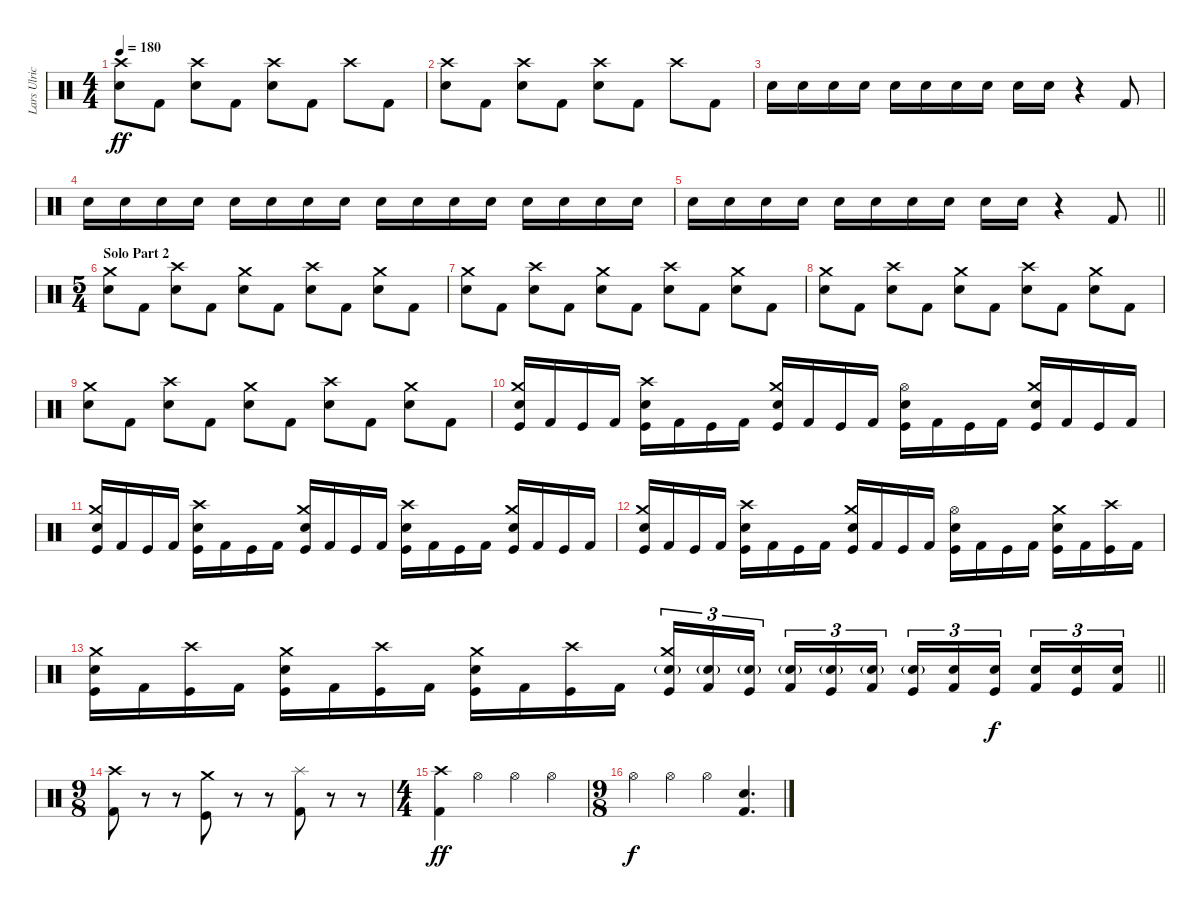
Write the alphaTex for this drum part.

\track ("Lars Ulrich" "Lars Ulric") {instrument percussion}
\staff {score}
\articulation defaults
\ts (4 4)
\tempo 180
\clef neutral
\ks c
("Crash high (hit)" "Electric Snare (hit)").8{dy ff} "Kick (hit) 2".8 ("Crash high (hit)" "Electric Snare (hit)").8 "Kick (hit) 2".8 ("Crash high (hit)" "Electric Snare (hit)").8 "Kick (hit) 2".8 "Crash high (hit)".8 "Kick (hit) 2".8 |
("Crash high (hit)" "Electric Snare (hit)").8 "Kick (hit) 2".8 ("Crash high (hit)" "Electric Snare (hit)").8 "Kick (hit) 2".8 ("Crash high (hit)" "Electric Snare (hit)").8 "Kick (hit) 2".8 "Crash high (hit)".8 "Kick (hit) 2".8 |
"Electric Snare (hit)".16 "Electric Snare (hit)".16 "Electric Snare (hit)".16 "Electric Snare (hit)".16 "Electric Snare (hit)".16 "Electric Snare (hit)".16 "Electric Snare (hit)".16 "Electric Snare (hit)".16 "Electric Snare (hit)".16 "Electric Snare (hit)".16 r.4 "Kick (hit) 2".8 |
"Electric Snare (hit)".16 "Electric Snare (hit)".16 "Electric Snare (hit)".16 "Electric Snare (hit)".16 "Electric Snare (hit)".16 "Electric Snare (hit)".16 "Electric Snare (hit)".16 "Electric Snare (hit)".16 "Electric Snare (hit)".16 "Electric Snare (hit)".16 "Electric Snare (hit)".16 "Electric Snare (hit)".16 "Electric Snare (hit)".16 "Electric Snare (hit)".16 "Electric Snare (hit)".16 "Electric Snare (hit)".16 |
\barLineRight lightlight "Electric Snare (hit)".16 "Electric Snare (hit)".16 "Electric Snare (hit)".16 "Electric Snare (hit)".16 "Electric Snare (hit)".16 "Electric Snare (hit)".16 "Electric Snare (hit)".16 "Electric Snare (hit)".16 "Electric Snare (hit)".16 "Electric Snare (hit)".16
r.4 "Kick (hit) 2".8 |
\ts (5 4)
\section ("" "Solo Part 2")
("Crash medium (hit)" "Electric Snare (hit)").8 "Kick (hit) 2".8 ("Crash high (hit)" "Electric Snare (hit)").8 "Kick (hit) 2".8 ("Crash medium (hit)" "Electric Snare (hit)").8 "Kick (hit) 2".8 ("Crash high (hit)" "Electric Snare (hit)").8 "Kick (hit) 2".8 ("Crash medium (hit)" "Electric Snare (hit)").8 "Kick (hit) 2".8 |
("Crash medium (hit)" "Electric Snare (hit)").8 "Kick (hit) 2".8 ("Crash high (hit)" "Electric Snare (hit)").8 "Kick (hit) 2".8 ("Crash medium (hit)" "Electric Snare (hit)").8 "Kick (hit) 2".8 ("Crash high (hit)" "Electric Snare (hit)").8 "Kick (hit) 2".8 ("Crash medium (hit)" "Electric Snare (hit)").8 "Kick (hit) 2".8 |
("Crash medium (hit)" "Electric Snare (hit)").8 "Kick (hit) 2".8 ("Crash high (hit)" "Electric Snare (hit)").8 "Kick (hit) 2".8 ("Crash medium (hit)" "Electric Snare (hit)").8 "Kick (hit) 2".8 ("Crash high (hit)" "Electric Snare (hit)").8 "Kick (hit) 2".8 ("Crash medium (hit)" "Electric Snare (hit)").8 "Kick (hit) 2".8 |
("Crash medium (hit)" "Electric Snare (hit)").8 "Kick (hit) 2".8 ("Crash high (hit)" "Electric Snare (hit)").8 "Kick (hit) 2".8 ("Crash medium (hit)" "Electric Snare (hit)").8 "Kick (hit) 2".8 ("Crash high (hit)" "Electric Snare (hit)").8 "Kick (hit) 2".8 ("Crash medium (hit)" "Electric Snare (hit)").8 "Kick (hit) 2".8 |
("Crash medium (hit)" "Electric Snare (hit)" "Kick (hit)").16 "Kick (hit) 2".16 "Kick (hit)".16 "Kick (hit) 2".16 ("Crash high (hit)" "Electric Snare (hit)" "Kick (hit)").16 "Kick (hit) 2".16 "Kick (hit)".16 "Kick (hit) 2".16 ("Crash medium (hit)" "Electric Snare (hit)" "Kick (hit)").16 "Kick (hit) 2".16 "Kick (hit)".16 "Kick (hit) 2".16 ("Hi-Hat (open)" "Electric Snare (hit)" "Kick (hit)").16 "Kick (hit) 2".16 "Kick (hit)".16 "Kick (hit) 2".16 ("Crash medium (hit)" "Electric Snare (hit)" "Kick (hit)").16 "Kick (hit) 2".16 "Kick (hit)".16 "Kick (hit) 2".16 |
("Crash medium (hit)" "Electric Snare (hit)" "Kick (hit)").16 "Kick (hit) 2".16 "Kick (hit)".16 "Kick (hit) 2".16 ("Crash high (hit)" "Electric Snare (hit)" "Kick (hit)").16 "Kick (hit) 2".16 "Kick (hit)".16 "Kick (hit) 2".16 ("Crash medium (hit)" "Electric Snare (hit)" "Kick (hit)").16 "Kick (hit) 2".16 "Kick (hit)".16 "Kick (hit) 2".16 ("Crash high (hit)" "Electric Snare (hit)" "Kick (hit)").16 "Kick (hit) 2".16 "Kick (hit)".16 "Kick (hit) 2".16 ("Crash medium (hit)" "Electric Snare (hit)" "Kick (hit)").16 "Kick (hit) 2".16 "Kick (hit)".16 "Kick (hit) 2".16 |
("Crash medium (hit)" "Electric Snare (hit)" "Kick (hit)").16 "Kick (hit) 2".16 "Kick (hit)".16 "Kick (hit) 2".16 ("Crash high (hit)" "Electric Snare (hit)" "Kick (hit)").16 "Kick (hit) 2".16 "Kick (hit)".16 "Kick (hit) 2".16 ("Crash medium (hit)" "Electric Snare (hit)" "Kick (hit)").16 "Kick (hit) 2".16 "Kick (hit)".16 "Kick (hit) 2".16 ("Hi-Hat (open)" "Electric Snare (hit)" "Kick (hit)").16 "Kick (hit) 2".16 "Kick (hit)".16 "Kick (hit) 2".16 ("Crash medium (hit)" "Electric Snare (hit)" "Kick (hit)").16 "Kick (hit) 2".16 ("Crash high (hit)" "Kick (hit)").16 "Kick (hit) 2".16 |
\barLineRight lightlight
("Crash medium (hit)" "Electric Snare (hit)" "Kick (hit)").16 "Kick (hit) 2".16 ("Crash high (hit)" "Kick (hit)").16 "Kick (hit) 2".16 ("Crash medium (hit)" "Electric Snare (hit)" "Kick (hit)").16 "Kick (hit) 2".16 ("Crash high (hit)" "Kick (hit)").16 "Kick (hit) 2".16 ("Crash medium (hit)" "Electric Snare (hit)" "Kick (hit)").16 "Kick (hit) 2".16 ("Crash high (hit)" "Kick (hit)").16 "Kick (hit) 2".16 ("Crash medium (hit)" "Electric Snare (hit)"{g} "Kick (hit)").16{tu (3 2)} ("Electric Snare (hit)"{g} "Kick (hit) 2").16{tu (3 2)} ("Electric Snare (hit)"{g} "Kick (hit)").16{tu (3 2)} ("Electric Snare (hit)"{g} "Kick (hit) 2").16{tu (3 2)} ("Electric Snare (hit)"{g} "Kick (hit)").16{tu (3 2)} ("Electric Snare (hit)"{g} "Kick (hit) 2").16{tu (3 2)} ("Electric Snare (hit)"{g} "Kick (hit)").16{tu (3 2)} ("Electric Snare (hit)" "Kick (hit) 2").16{tu (3 2)} ("Electric Snare (hit)" "Kick (hit)").16{tu (3 2) dy f} ("Electric Snare (hit)" "Kick (hit) 2").16{tu (3 2)} ("Electric Snare (hit)" "Kick (hit)").16{tu (3 2)} ("Electric Snare (hit)" "Kick (hit) 2").16{tu (3 2)} |
\ts (9 8)
("Crash high (hit)" "Kick (hit) 2").8 r.8 r.8 ("Crash medium (hit)" "Kick (hit)").8 r.8 r.8 ("Splash (hit)" "Kick (hit) 2").8 r.8 r.8 |
\ts (4 4)
("Crash high (hit)" "Kick (hit) 2").4{dy ff} "Hi-Hat (open)".4 "Hi-Hat (open)".4 "Hi-Hat (open)".4 |
\ts (9 8)
"Hi-Hat (open)".4{dy f} "Hi-Hat (open)".4 "Hi-Hat (open)".4 ("Electric Snare (hit)" "Kick (hit) 2").4{d}
